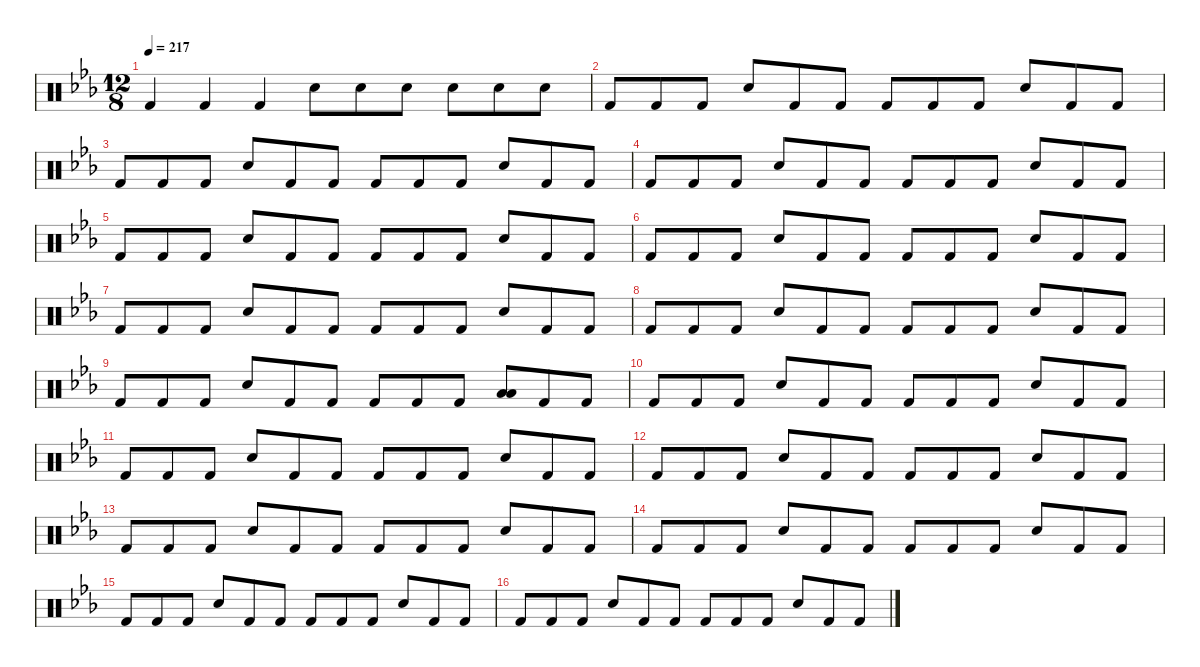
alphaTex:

\defaultSystemsLayout 4
\hideDynamics
\bracketExtendMode nobrackets
\singleTrackTrackNamePolicy hidden
\multiTrackTrackNamePolicy hidden
\firstSystemTrackNameMode fullname
\firstSystemTrackNameOrientation horizontal
\otherSystemsTrackNameOrientation horizontal
\track ("Beats" "drm.") {instrument percussion}
\staff {score}
\articulation defaults
\ts (12 8)
\tempo 217
\clef neutral
\ks eb "Kick (hit) 2"{acc forcenatural}.4{dy f beam Up} "Kick (hit) 2"{acc forcenatural}.4{beam Up} "Kick (hit) 2"{acc forcenatural}.4{beam Up} "Snare (hit) 2"{acc forcenatural}.8{beam Down} "Snare (hit) 2"{acc forcenatural}.8{beam Down} "Snare (hit) 2"{acc forcenatural}.8{beam Down} "Snare (hit) 2"{acc forcenatural}.8{beam Down} "Snare (hit) 2"{acc forcenatural}.8{beam Down} "Snare (hit) 2"{acc forcenatural}.8{beam Down}
|
"Kick (hit) 2"{acc forcenatural}.8{beam Up} "Kick (hit) 2"{acc forcenatural}.8{beam Up} "Kick (hit) 2"{acc forcenatural}.8{beam Up} "Snare (hit) 2"{acc forcenatural}.8{beam Up} "Kick (hit) 2"{acc forcenatural}.8{beam Up} "Kick (hit) 2"{acc forcenatural}.8{beam Up} "Kick (hit) 2"{acc forcenatural}.8{beam Up} "Kick (hit) 2"{acc forcenatural}.8{beam Up} "Kick (hit) 2"{acc forcenatural}.8{beam Up} "Snare (hit) 2"{acc forcenatural}.8{beam Up} "Kick (hit) 2"{acc forcenatural}.8{beam Up} "Kick (hit) 2"{acc forcenatural}.8{beam Up} |
"Kick (hit) 2"{acc forcenatural}.8{beam Up} "Kick (hit) 2"{acc forcenatural}.8{beam Up} "Kick (hit) 2"{acc forcenatural}.8{beam Up} "Snare (hit) 2"{acc forcenatural}.8{beam Up} "Kick (hit) 2"{acc forcenatural}.8{beam Up} "Kick (hit) 2"{acc forcenatural}.8{beam Up} "Kick (hit) 2"{acc forcenatural}.8{beam Up} "Kick (hit) 2"{acc forcenatural}.8{beam Up} "Kick (hit) 2"{acc forcenatural}.8{beam Up} "Snare (hit) 2"{acc forcenatural}.8{beam Up} "Kick (hit) 2"{acc forcenatural}.8{beam Up} "Kick (hit) 2"{acc forcenatural}.8{beam Up} |
"Kick (hit) 2"{acc forcenatural}.8{beam Up} "Kick (hit) 2"{acc forcenatural}.8{beam Up} "Kick (hit) 2"{acc forcenatural}.8{beam Up} "Snare (hit) 2"{acc forcenatural}.8{beam Up} "Kick (hit) 2"{acc forcenatural}.8{beam Up} "Kick (hit) 2"{acc forcenatural}.8{beam Up} "Kick (hit) 2"{acc forcenatural}.8{beam Up} "Kick (hit) 2"{acc forcenatural}.8{beam Up} "Kick (hit) 2"{acc forcenatural}.8{beam Up} "Snare (hit) 2"{acc forcenatural}.8{beam Up} "Kick (hit) 2"{acc forcenatural}.8{beam Up} "Kick (hit) 2"{acc forcenatural}.8{beam Up} |
"Kick (hit) 2"{acc forcenatural}.8{beam Up} "Kick (hit) 2"{acc forcenatural}.8{beam Up} "Kick (hit) 2"{acc forcenatural}.8{beam Up} "Snare (hit) 2"{acc forcenatural}.8{beam Up} "Kick (hit) 2"{acc forcenatural}.8{beam Up} "Kick (hit) 2"{acc forcenatural}.8{beam Up} "Kick (hit) 2"{acc forcenatural}.8{beam Up} "Kick (hit) 2"{acc forcenatural}.8{beam Up} "Kick (hit) 2"{acc forcenatural}.8{beam Up} "Snare (hit) 2"{acc forcenatural}.8{beam Up} "Kick (hit) 2"{acc forcenatural}.8{beam Up} "Kick (hit) 2"{acc forcenatural}.8{beam Up} |
"Kick (hit) 2"{acc forcenatural}.8{beam Up} "Kick (hit) 2"{acc forcenatural}.8{beam Up} "Kick (hit) 2"{acc forcenatural}.8{beam Up} "Snare (hit) 2"{acc forcenatural}.8{beam Up} "Kick (hit) 2"{acc forcenatural}.8{beam Up} "Kick (hit) 2"{acc forcenatural}.8{beam Up} "Kick (hit) 2"{acc forcenatural}.8{beam Up} "Kick (hit) 2"{acc forcenatural}.8{beam Up} "Kick (hit) 2"{acc forcenatural}.8{beam Up} "Snare (hit) 2"{acc forcenatural}.8{beam Up} "Kick (hit) 2"{acc forcenatural}.8{beam Up} "Kick (hit) 2"{acc forcenatural}.8{beam Up} |
"Kick (hit) 2"{acc forcenatural}.8{beam Up} "Kick (hit) 2"{acc forcenatural}.8{beam Up} "Kick (hit) 2"{acc forcenatural}.8{beam Up} "Snare (hit) 2"{acc forcenatural}.8{beam Up} "Kick (hit) 2"{acc forcenatural}.8{beam Up} "Kick (hit) 2"{acc forcenatural}.8{beam Up} "Kick (hit) 2"{acc forcenatural}.8{beam Up} "Kick (hit) 2"{acc forcenatural}.8{beam Up} "Kick (hit) 2"{acc forcenatural}.8{beam Up} "Snare (hit) 2"{acc forcenatural}.8{beam Up} "Kick (hit) 2"{acc forcenatural}.8{beam Up} "Kick (hit) 2"{acc forcenatural}.8{beam Up} |
"Kick (hit) 2"{acc forcenatural}.8{beam Up} "Kick (hit) 2"{acc forcenatural}.8{beam Up} "Kick (hit) 2"{acc forcenatural}.8{beam Up} "Snare (hit) 2"{acc forcenatural}.8{beam Up} "Kick (hit) 2"{acc forcenatural}.8{beam Up} "Kick (hit) 2"{acc forcenatural}.8{beam Up} "Kick (hit) 2"{acc forcenatural}.8{beam Up} "Kick (hit) 2"{acc forcenatural}.8{beam Up} "Kick (hit) 2"{acc forcenatural}.8{beam Up} "Snare (hit) 2"{acc forcenatural}.8{beam Up} "Kick (hit) 2"{acc forcenatural}.8{beam Up} "Kick (hit) 2"{acc forcenatural}.8{beam Up} |
"Kick (hit) 2"{acc forcenatural}.8{beam Up} "Kick (hit) 2"{acc forcenatural}.8{beam Up} "Kick (hit) 2"{acc forcenatural}.8{beam Up} "Snare (hit) 2"{acc forcenatural}.8{beam Up} "Kick (hit) 2"{acc forcenatural}.8{beam Up} "Kick (hit) 2"{acc forcenatural}.8{beam Up} "Kick (hit) 2"{acc forcenatural}.8{beam Up} "Kick (hit) 2"{acc forcenatural}.8{beam Up} "Kick (hit) 2"{acc forcenatural}.8{beam Up} ("Low Tom (hit)"{acc forcenatural} "Low Tom (hit)"{acc forcenatural}).8{beam Up} "Kick (hit) 2"{acc forcenatural}.8{beam Up} "Kick (hit) 2"{acc forcenatural}.8{beam Up} |
"Kick (hit) 2"{acc forcenatural}.8{beam Up} "Kick (hit) 2"{acc forcenatural}.8{beam Up} "Kick (hit) 2"{acc forcenatural}.8{beam Up} "Snare (hit) 2"{acc forcenatural}.8{beam Up} "Kick (hit) 2"{acc forcenatural}.8{beam Up} "Kick (hit) 2"{acc forcenatural}.8{beam Up} "Kick (hit) 2"{acc forcenatural}.8{beam Up} "Kick (hit) 2"{acc forcenatural}.8{beam Up} "Kick (hit) 2"{acc forcenatural}.8{beam Up} "Snare (hit) 2"{acc forcenatural}.8{beam Up} "Kick (hit) 2"{acc forcenatural}.8{beam Up} "Kick (hit) 2"{acc forcenatural}.8{beam Up} |
"Kick (hit) 2"{acc forcenatural}.8{beam Up} "Kick (hit) 2"{acc forcenatural}.8{beam Up} "Kick (hit) 2"{acc forcenatural}.8{beam Up} "Snare (hit) 2"{acc forcenatural}.8{beam Up} "Kick (hit) 2"{acc forcenatural}.8{beam Up} "Kick (hit) 2"{acc forcenatural}.8{beam Up} "Kick (hit) 2"{acc forcenatural}.8{beam Up} "Kick (hit) 2"{acc forcenatural}.8{beam Up} "Kick (hit) 2"{acc forcenatural}.8{beam Up} "Snare (hit) 2"{acc forcenatural}.8{beam Up} "Kick (hit) 2"{acc forcenatural}.8{beam Up} "Kick (hit) 2"{acc forcenatural}.8{beam Up} |
"Kick (hit) 2"{acc forcenatural}.8{beam Up} "Kick (hit) 2"{acc forcenatural}.8{beam Up} "Kick (hit) 2"{acc forcenatural}.8{beam Up} "Snare (hit) 2"{acc forcenatural}.8{beam Up} "Kick (hit) 2"{acc forcenatural}.8{beam Up} "Kick (hit) 2"{acc forcenatural}.8{beam Up} "Kick (hit) 2"{acc forcenatural}.8{beam Up} "Kick (hit) 2"{acc forcenatural}.8{beam Up} "Kick (hit) 2"{acc forcenatural}.8{beam Up} "Snare (hit) 2"{acc forcenatural}.8{beam Up} "Kick (hit) 2"{acc forcenatural}.8{beam Up} "Kick (hit) 2"{acc forcenatural}.8{beam Up} |
"Kick (hit) 2"{acc forcenatural}.8{beam Up} "Kick (hit) 2"{acc forcenatural}.8{beam Up} "Kick (hit) 2"{acc forcenatural}.8{beam Up} "Snare (hit) 2"{acc forcenatural}.8{beam Up} "Kick (hit) 2"{acc forcenatural}.8{beam Up} "Kick (hit) 2"{acc forcenatural}.8{beam Up} "Kick (hit) 2"{acc forcenatural}.8{beam Up} "Kick (hit) 2"{acc forcenatural}.8{beam Up} "Kick (hit) 2"{acc forcenatural}.8{beam Up} "Snare (hit) 2"{acc forcenatural}.8{beam Up} "Kick (hit) 2"{acc forcenatural}.8{beam Up} "Kick (hit) 2"{acc forcenatural}.8{beam Up} |
"Kick (hit) 2"{acc forcenatural}.8{beam Up} "Kick (hit) 2"{acc forcenatural}.8{beam Up} "Kick (hit) 2"{acc forcenatural}.8{beam Up} "Snare (hit) 2"{acc forcenatural}.8{beam Up} "Kick (hit) 2"{acc forcenatural}.8{beam Up} "Kick (hit) 2"{acc forcenatural}.8{beam Up} "Kick (hit) 2"{acc forcenatural}.8{beam Up} "Kick (hit) 2"{acc forcenatural}.8{beam Up} "Kick (hit) 2"{acc forcenatural}.8{beam Up} "Snare (hit) 2"{acc forcenatural}.8{beam Up} "Kick (hit) 2"{acc forcenatural}.8{beam Up} "Kick (hit) 2"{acc forcenatural}.8{beam Up} |
"Kick (hit) 2"{acc forcenatural}.8{beam Up} "Kick (hit) 2"{acc forcenatural}.8{beam Up} "Kick (hit) 2"{acc forcenatural}.8{beam Up} "Snare (hit) 2"{acc forcenatural}.8{beam Up} "Kick (hit) 2"{acc forcenatural}.8{beam Up} "Kick (hit) 2"{acc forcenatural}.8{beam Up} "Kick (hit) 2"{acc forcenatural}.8{beam Up} "Kick (hit) 2"{acc forcenatural}.8{beam Up} "Kick (hit) 2"{acc forcenatural}.8{beam Up} "Snare (hit) 2"{acc forcenatural}.8{beam Up} "Kick (hit) 2"{acc forcenatural}.8{beam Up} "Kick (hit) 2"{acc forcenatural}.8{beam Up} |
"Kick (hit) 2"{acc forcenatural}.8{beam Up} "Kick (hit) 2"{acc forcenatural}.8{beam Up} "Kick (hit) 2"{acc forcenatural}.8{beam Up} "Snare (hit) 2"{acc forcenatural}.8{beam Up} "Kick (hit) 2"{acc forcenatural}.8{beam Up} "Kick (hit) 2"{acc forcenatural}.8{beam Up} "Kick (hit) 2"{acc forcenatural}.8{beam Up} "Kick (hit) 2"{acc forcenatural}.8{beam Up} "Kick (hit) 2"{acc forcenatural}.8{beam Up} "Snare (hit) 2"{acc forcenatural}.8{beam Up} "Kick (hit) 2"{acc forcenatural}.8{beam Up} "Kick (hit) 2"{acc forcenatural}.8{beam Up}
